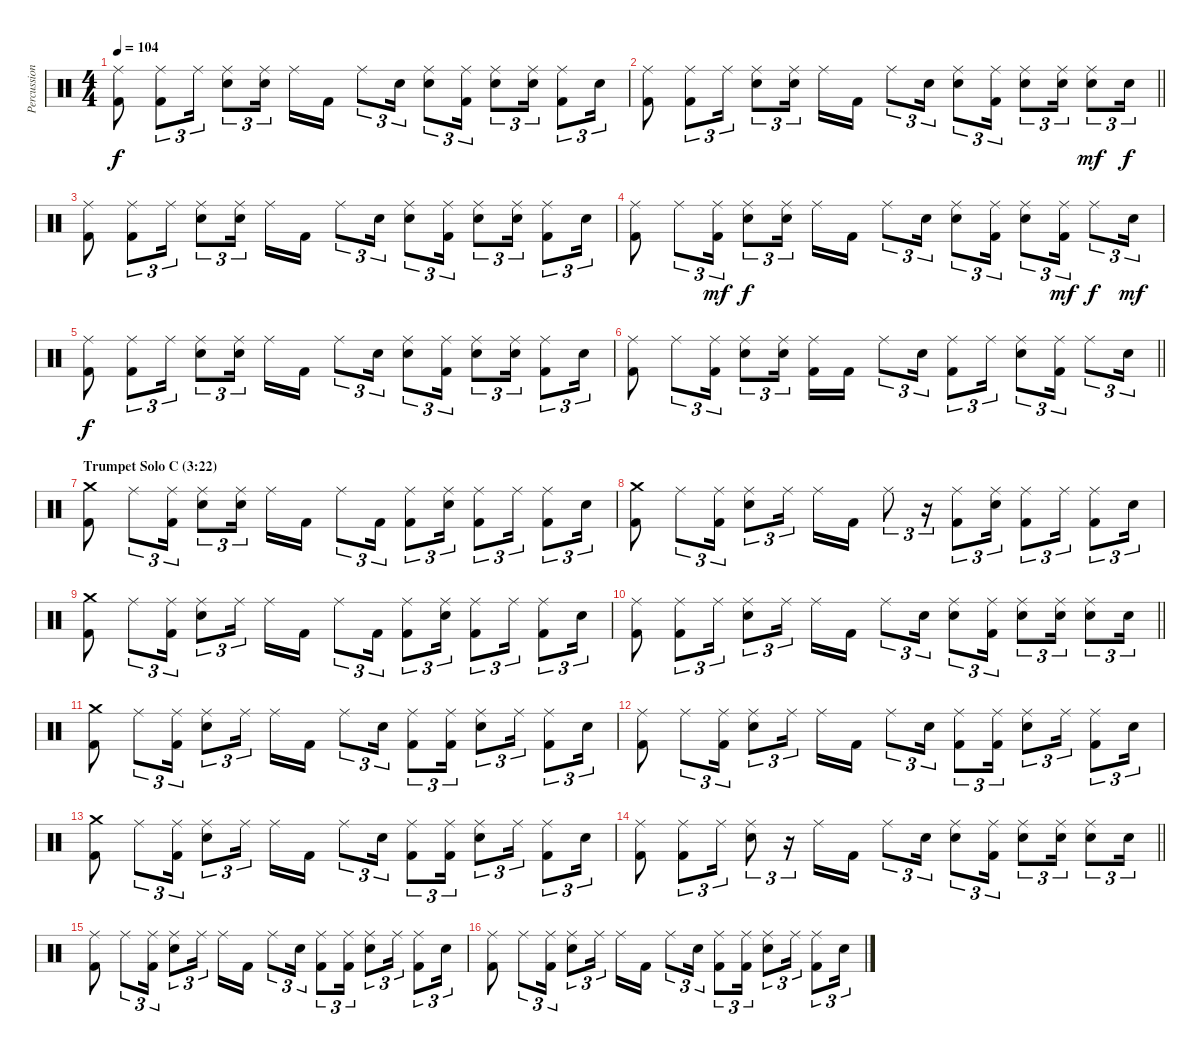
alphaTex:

\track ("Percussion" "Percussion") {instrument percussion}
\staff {score}
\articulation defaults
\ts (4 4)
\tempo 104
\clef neutral
\ks c
("Ride (middle)" "Kick (hit) 2").8{dy f} ("Ride (middle)" "Kick (hit) 2").8{tu (3 2)} "Ride (middle)".16{tu (3 2)} ("Ride (middle)" "Electric Snare (hit)").8{tu (3 2)} ("Ride (middle)" "Electric Snare (hit)").16{tu (3 2) beam splitsecondary} "Ride (middle)".16 "Kick (hit) 2".16 "Ride (middle)".8{tu (3 2)} "Electric Snare (hit)".16{tu (3 2)} ("Ride (middle)" "Electric Snare (hit)").8{tu (3 2)} ("Ride (middle)" "Kick (hit) 2").16{tu (3 2)} ("Ride (middle)" "Electric Snare (hit)").8{tu (3 2)} ("Ride (middle)" "Electric Snare (hit)").16{tu (3 2)} ("Ride (middle)" "Kick (hit) 2").8{tu (3 2)} "Electric Snare (hit)".16{tu (3 2)} |
\barLineRight lightlight
("Ride (middle)" "Kick (hit) 2").8 ("Ride (middle)" "Kick (hit) 2").8{tu (3 2)} "Ride (middle)".16{tu (3 2)} ("Ride (middle)" "Electric Snare (hit)").8{tu (3 2)} ("Ride (middle)" "Electric Snare (hit)").16{tu (3 2) beam splitsecondary} "Ride (middle)".16 "Kick (hit) 2".16 "Ride (middle)".8{tu (3 2)} "Electric Snare (hit)".16{tu (3 2)} ("Ride (middle)" "Electric Snare (hit)").8{tu (3 2)} ("Ride (middle)" "Kick (hit) 2").16{tu (3 2)} ("Ride (middle)" "Electric Snare (hit)").8{tu (3 2)} ("Ride (middle)" "Electric Snare (hit)").16{tu (3 2)} ("Ride (middle)" "Electric Snare (hit)").8{tu (3 2) dy mf} "Electric Snare (hit)".16{tu (3 2) dy f} |
("Ride (middle)" "Kick (hit) 2").8 ("Ride (middle)" "Kick (hit) 2").8{tu (3 2)} "Ride (middle)".16{tu (3 2)} ("Ride (middle)" "Electric Snare (hit)").8{tu (3 2)} ("Ride (middle)" "Electric Snare (hit)").16{tu (3 2) beam splitsecondary} "Ride (middle)".16 "Kick (hit) 2".16 "Ride (middle)".8{tu (3 2)} "Electric Snare (hit)".16{tu (3 2)} ("Ride (middle)" "Electric Snare (hit)").8{tu (3 2)} ("Ride (middle)" "Kick (hit) 2").16{tu (3 2)} ("Ride (middle)" "Electric Snare (hit)").8{tu (3 2)} ("Ride (middle)" "Electric Snare (hit)").16{tu (3 2)} ("Ride (middle)" "Kick (hit) 2").8{tu (3 2)} "Electric Snare (hit)".16{tu (3 2)} |
("Ride (middle)" "Kick (hit) 2").8 "Ride (middle)".8{tu (3 2)} ("Ride (middle)" "Kick (hit) 2").16{tu (3 2) dy mf} ("Ride (middle)" "Electric Snare (hit)").8{tu (3 2) dy f} ("Ride (middle)" "Electric Snare (hit)").16{tu (3 2) beam splitsecondary} "Ride (middle)".16 "Kick (hit) 2".16 "Ride (middle)".8{tu (3 2)} "Electric Snare (hit)".16{tu (3 2)} ("Ride (middle)" "Electric Snare (hit)").8{tu (3 2)} ("Ride (middle)" "Kick (hit) 2").16{tu (3 2)} ("Ride (middle)" "Electric Snare (hit)").8{tu (3 2)} ("Ride (middle)" "Kick (hit) 2").16{tu (3 2) dy mf} "Ride (middle)".8{tu (3 2) dy f} "Electric Snare (hit)".16{tu (3 2) dy mf} |
("Ride (middle)" "Kick (hit) 2").8{dy f} ("Ride (middle)" "Kick (hit) 2").8{tu (3 2)} "Ride (middle)".16{tu (3 2)} ("Ride (middle)" "Electric Snare (hit)").8{tu (3 2)} ("Ride (middle)" "Electric Snare (hit)").16{tu (3 2) beam splitsecondary} "Ride (middle)".16 "Kick (hit) 2".16 "Ride (middle)".8{tu (3 2)} "Electric Snare (hit)".16{tu (3 2)} ("Ride (middle)" "Electric Snare (hit)").8{tu (3 2)} ("Ride (middle)" "Kick (hit) 2").16{tu (3 2)} ("Ride (middle)" "Electric Snare (hit)").8{tu (3 2)} ("Ride (middle)" "Electric Snare (hit)").16{tu (3 2)} ("Ride (middle)" "Kick (hit) 2").8{tu (3 2)} "Electric Snare (hit)".16{tu (3 2)} |
\barLineRight lightlight
("Ride (middle)" "Kick (hit) 2").8 "Ride (middle)".8{tu (3 2)} ("Ride (middle)" "Kick (hit) 2").16{tu (3 2)} ("Ride (middle)" "Electric Snare (hit)").8{tu (3 2)} ("Ride (middle)" "Electric Snare (hit)").16{tu (3 2) beam splitsecondary} ("Ride (middle)" "Kick (hit) 2").16 "Kick (hit) 2".16 "Ride (middle)".8{tu (3 2)} "Electric Snare (hit)".16{tu (3 2)} ("Ride (middle)" "Kick (hit) 2").8{tu (3 2)} "Ride (middle)".16{tu (3 2)} ("Ride (middle)" "Electric Snare (hit)").8{tu (3 2)} ("Ride (middle)" "Kick (hit) 2").16{tu (3 2)} "Ride (middle)".8{tu (3 2)} "Electric Snare (hit)".16{tu (3 2)} |
\section ("" "Trumpet Solo C (3:22)")
("Crash medium (hit)" "Kick (hit) 2").8 "Ride (middle)".8{tu (3 2)} ("Ride (middle)" "Kick (hit) 2").16{tu (3 2)} ("Ride (middle)" "Electric Snare (hit)").8{tu (3 2)} ("Ride (middle)" "Electric Snare (hit)").16{tu (3 2) beam splitsecondary} "Ride (middle)".16 "Kick (hit) 2".16 "Ride (middle)".8{tu (3 2)} "Kick (hit) 2".16{tu (3 2)} ("Ride (middle)" "Kick (hit) 2").8{tu (3 2)} ("Ride (middle)" "Electric Snare (hit)").16{tu (3 2)} ("Ride (middle)" "Kick (hit) 2").8{tu (3 2)} "Ride (middle)".16{tu (3 2)} ("Ride (middle)" "Kick (hit) 2").8{tu (3 2)} "Electric Snare (hit)".16{tu (3 2)} |
("Crash medium (hit)" "Kick (hit) 2").8 "Ride (middle)".8{tu (3 2)} ("Ride (middle)" "Kick (hit) 2").16{tu (3 2)} ("Ride (middle)" "Electric Snare (hit)").8{tu (3 2)} "Ride (middle)".16{tu (3 2) beam splitsecondary} "Ride (middle)".16 "Kick (hit) 2".16 "Ride (middle)".8{tu (3 2)} r.16{tu (3 2)} ("Ride (middle)" "Kick (hit) 2").8{tu (3 2)} ("Ride (middle)" "Electric Snare (hit)").16{tu (3 2)} ("Ride (middle)" "Kick (hit) 2").8{tu (3 2)} "Ride (middle)".16{tu (3 2)} ("Ride (middle)" "Kick (hit) 2").8{tu (3 2)} "Electric Snare (hit)".16{tu (3 2)} |
("Crash medium (hit)" "Kick (hit) 2").8 "Ride (middle)".8{tu (3 2)} ("Ride (middle)" "Kick (hit) 2").16{tu (3 2)} ("Ride (middle)" "Electric Snare (hit)").8{tu (3 2)} "Ride (middle)".16{tu (3 2) beam splitsecondary} "Ride (middle)".16 "Kick (hit) 2".16 "Ride (middle)".8{tu (3 2)} "Kick (hit) 2".16{tu (3 2)} ("Ride (middle)" "Kick (hit) 2").8{tu (3 2)} ("Ride (middle)" "Electric Snare (hit)").16{tu (3 2)} ("Ride (middle)" "Kick (hit) 2").8{tu (3 2)} "Ride (middle)".16{tu (3 2)} ("Ride (middle)" "Kick (hit) 2").8{tu (3 2)} "Electric Snare (hit)".16{tu (3 2)} |
\barLineRight lightlight
("Ride (middle)" "Kick (hit) 2").8 ("Ride (middle)" "Kick (hit) 2").8{tu (3 2)} "Ride (middle)".16{tu (3 2)} ("Ride (middle)" "Electric Snare (hit)").8{tu (3 2)} "Ride (middle)".16{tu (3 2) beam splitsecondary} "Ride (middle)".16 "Kick (hit) 2".16 "Ride (middle)".8{tu (3 2)} "Electric Snare (hit)".16{tu (3 2)} ("Ride (middle)" "Electric Snare (hit)").8{tu (3 2)} ("Ride (middle)" "Kick (hit) 2").16{tu (3 2)} ("Ride (middle)" "Snare (hit) 2").8{tu (3 2)} ("Ride (middle)" "Snare (hit) 2").16{tu (3 2)} ("Ride (middle)" "Snare (hit) 2").8{tu (3 2)} "Snare (hit) 2".16{tu (3 2)} |
("Crash medium (hit)" "Kick (hit) 2").8 "Ride (middle)".8{tu (3 2)} ("Ride (middle)" "Kick (hit) 2").16{tu (3 2)} ("Ride (middle)" "Electric Snare (hit)").8{tu (3 2)} "Ride (middle)".16{tu (3 2) beam splitsecondary} "Ride (middle)".16 "Kick (hit) 2".16 "Ride (middle)".8{tu (3 2)} "Electric Snare (hit)".16{tu (3 2)} ("Ride (middle)" "Kick (hit) 2").8{tu (3 2)} ("Ride (middle)" "Kick (hit) 2").16{tu (3 2)} ("Ride (middle)" "Electric Snare (hit)").8{tu (3 2)} "Ride (middle)".16{tu (3 2)} ("Ride (middle)" "Kick (hit) 2").8{tu (3 2)} "Electric Snare (hit)".16{tu (3 2)} |
("Ride (middle)" "Kick (hit) 2").8 "Ride (middle)".8{tu (3 2)} ("Ride (middle)" "Kick (hit) 2").16{tu (3 2)} ("Ride (middle)" "Electric Snare (hit)").8{tu (3 2)} "Ride (middle)".16{tu (3 2) beam splitsecondary} "Ride (middle)".16 "Kick (hit) 2".16 "Ride (middle)".8{tu (3 2)} "Electric Snare (hit)".16{tu (3 2)} ("Ride (middle)" "Kick (hit) 2").8{tu (3 2)} ("Ride (middle)" "Kick (hit) 2").16{tu (3 2)} ("Ride (middle)" "Electric Snare (hit)").8{tu (3 2)} "Ride (middle)".16{tu (3 2)} ("Ride (middle)" "Kick (hit) 2").8{tu (3 2)} "Electric Snare (hit)".16{tu (3 2)} |
("Crash medium (hit)" "Kick (hit) 2").8 "Ride (middle)".8{tu (3 2)} ("Ride (middle)" "Kick (hit) 2").16{tu (3 2)} ("Ride (middle)" "Electric Snare (hit)").8{tu (3 2)} "Ride (middle)".16{tu (3 2) beam splitsecondary} "Ride (middle)".16 "Kick (hit) 2".16 "Ride (middle)".8{tu (3 2)} "Electric Snare (hit)".16{tu (3 2)} ("Ride (middle)" "Kick (hit) 2").8{tu (3 2)} ("Ride (middle)" "Kick (hit) 2").16{tu (3 2)} ("Ride (middle)" "Electric Snare (hit)").8{tu (3 2)} "Ride (middle)".16{tu (3 2)} ("Ride (middle)" "Kick (hit) 2").8{tu (3 2)} "Electric Snare (hit)".16{tu (3 2)} |
\barLineRight lightlight
("Ride (middle)" "Kick (hit) 2").8 ("Ride (middle)" "Kick (hit) 2").8{tu (3 2)} "Ride (middle)".16{tu (3 2)} ("Ride (middle)" "Electric Snare (hit)").8{tu (3 2)} r.16{tu (3 2)} "Ride (middle)".16 "Kick (hit) 2".16 "Ride (middle)".8{tu (3 2)} "Electric Snare (hit)".16{tu (3 2)} ("Ride (middle)" "Electric Snare (hit)").8{tu (3 2)} ("Ride (middle)" "Kick (hit) 2").16{tu (3 2)} ("Ride (middle)" "Snare (hit) 2").8{tu (3 2)} ("Ride (middle)" "Snare (hit) 2").16{tu (3 2)} ("Ride (middle)" "Snare (hit) 2").8{tu (3 2)} "Snare (hit) 2".16{tu (3 2)} |
("Ride (middle)" "Kick (hit) 2").8 "Ride (middle)".8{tu (3 2)} ("Ride (middle)" "Kick (hit) 2").16{tu (3 2)} ("Ride (middle)" "Electric Snare (hit)").8{tu (3 2)} "Ride (middle)".16{tu (3 2) beam splitsecondary} "Ride (middle)".16 "Kick (hit) 2".16 "Ride (middle)".8{tu (3 2)} "Electric Snare (hit)".16{tu (3 2)} ("Ride (middle)" "Kick (hit) 2").8{tu (3 2)} ("Ride (middle)" "Kick (hit) 2").16{tu (3 2)} ("Ride (middle)" "Electric Snare (hit)").8{tu (3 2)} "Ride (middle)".16{tu (3 2)} ("Ride (middle)" "Kick (hit) 2").8{tu (3 2)} "Electric Snare (hit)".16{tu (3 2)} |
("Ride (middle)" "Kick (hit) 2").8 "Ride (middle)".8{tu (3 2)} ("Ride (middle)" "Kick (hit) 2").16{tu (3 2)} ("Ride (middle)" "Electric Snare (hit)").8{tu (3 2)} "Ride (middle)".16{tu (3 2) beam splitsecondary} "Ride (middle)".16 "Kick (hit) 2".16 "Ride (middle)".8{tu (3 2)} "Electric Snare (hit)".16{tu (3 2)} ("Ride (middle)" "Kick (hit) 2").8{tu (3 2)} ("Ride (middle)" "Kick (hit) 2").16{tu (3 2)} ("Ride (middle)" "Electric Snare (hit)").8{tu (3 2)} "Ride (middle)".16{tu (3 2)} ("Ride (middle)" "Kick (hit) 2").8{tu (3 2)} "Electric Snare (hit)".16{tu (3 2)}
